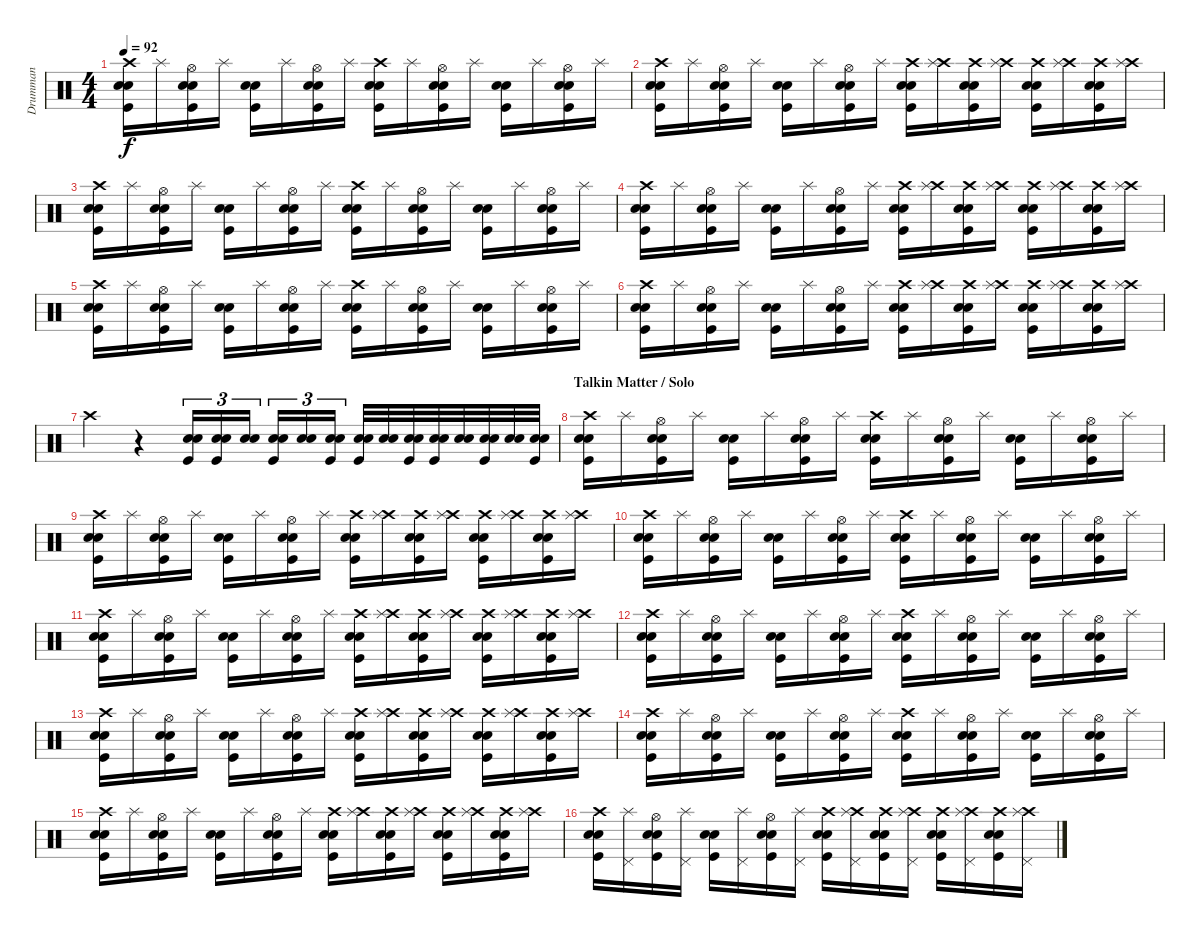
\track ("Drumman" "Drumman") {instrument percussion}
\staff {score}
\articulation defaults
\ts (4 4)
\tempo 92
\clef neutral
\ks c
("Crash high (hit)" "Snare (hit) 2" "Electric Snare (hit)" "Kick (hit)").16{dy f} "Splash (hit)".16 ("Hi-Hat (open)" "Snare (hit) 2" "Electric Snare (hit)" "Kick (hit)").16 "Splash (hit)".16 ("Snare (hit) 2" "Electric Snare (hit)" "Kick (hit)").16 "Splash (hit)".16 ("Hi-Hat (open)" "Snare (hit) 2" "Electric Snare (hit)" "Kick (hit)").16 "Splash (hit)".16 ("Crash high (hit)" "Snare (hit) 2" "Electric Snare (hit)" "Kick (hit)").16 "Splash (hit)".16 ("Hi-Hat (open)" "Snare (hit) 2" "Electric Snare (hit)" "Kick (hit)").16 "Splash (hit)".16 ("Snare (hit) 2" "Electric Snare (hit)" "Kick (hit)").16 "Splash (hit)".16 ("Hi-Hat (open)" "Snare (hit) 2" "Electric Snare (hit)" "Kick (hit)").16 "Splash (hit)".16 |
("Crash high (hit)" "Snare (hit) 2" "Electric Snare (hit)" "Kick (hit)").16 "Splash (hit)".16 ("Hi-Hat (open)" "Snare (hit) 2" "Electric Snare (hit)" "Kick (hit)").16 "Splash (hit)".16 ("Snare (hit) 2" "Electric Snare (hit)" "Kick (hit)").16 "Splash (hit)".16 ("Hi-Hat (open)" "Snare (hit) 2" "Electric Snare (hit)" "Kick (hit)").16 "Splash (hit)".16 ("Crash high (hit)" "Snare (hit) 2" "Electric Snare (hit)" "Kick (hit)").16 ("Crash high (hit)" "Splash (hit)").16 ("Crash high (hit)" "Snare (hit) 2" "Electric Snare (hit)" "Kick (hit)").16 ("Crash high (hit)" "Splash (hit)").16 ("Crash high (hit)" "Snare (hit) 2" "Electric Snare (hit)" "Kick (hit)").16 ("Crash high (hit)" "Splash (hit)").16 ("Crash high (hit)" "Snare (hit) 2" "Electric Snare (hit)" "Kick (hit)").16 ("Crash high (hit)" "Splash (hit)").16 |
("Crash high (hit)" "Snare (hit) 2" "Electric Snare (hit)" "Kick (hit)").16 "Splash (hit)".16 ("Hi-Hat (open)" "Snare (hit) 2" "Electric Snare (hit)" "Kick (hit)").16 "Splash (hit)".16 ("Snare (hit) 2" "Electric Snare (hit)" "Kick (hit)").16 "Splash (hit)".16 ("Hi-Hat (open)" "Snare (hit) 2" "Electric Snare (hit)" "Kick (hit)").16 "Splash (hit)".16 ("Crash high (hit)" "Snare (hit) 2" "Electric Snare (hit)" "Kick (hit)").16 "Splash (hit)".16 ("Hi-Hat (open)" "Snare (hit) 2" "Electric Snare (hit)" "Kick (hit)").16 "Splash (hit)".16 ("Snare (hit) 2" "Electric Snare (hit)" "Kick (hit)").16 "Splash (hit)".16 ("Hi-Hat (open)" "Snare (hit) 2" "Electric Snare (hit)" "Kick (hit)").16 "Splash (hit)".16 |
("Crash high (hit)" "Snare (hit) 2" "Electric Snare (hit)" "Kick (hit)").16 "Splash (hit)".16 ("Hi-Hat (open)" "Snare (hit) 2" "Electric Snare (hit)" "Kick (hit)").16 "Splash (hit)".16 ("Snare (hit) 2" "Electric Snare (hit)" "Kick (hit)").16 "Splash (hit)".16 ("Hi-Hat (open)" "Snare (hit) 2" "Electric Snare (hit)" "Kick (hit)").16 "Splash (hit)".16 ("Crash high (hit)" "Snare (hit) 2" "Electric Snare (hit)" "Kick (hit)").16 ("Crash high (hit)" "Splash (hit)").16 ("Crash high (hit)" "Snare (hit) 2" "Electric Snare (hit)" "Kick (hit)").16 ("Crash high (hit)" "Splash (hit)").16 ("Crash high (hit)" "Snare (hit) 2" "Electric Snare (hit)" "Kick (hit)").16 ("Crash high (hit)" "Splash (hit)").16 ("Crash high (hit)" "Snare (hit) 2" "Electric Snare (hit)" "Kick (hit)").16 ("Crash high (hit)" "Splash (hit)").16 |
("Crash high (hit)" "Snare (hit) 2" "Electric Snare (hit)" "Kick (hit)").16 "Splash (hit)".16 ("Hi-Hat (open)" "Snare (hit) 2" "Electric Snare (hit)" "Kick (hit)").16 "Splash (hit)".16 ("Snare (hit) 2" "Electric Snare (hit)" "Kick (hit)").16 "Splash (hit)".16 ("Hi-Hat (open)" "Snare (hit) 2" "Electric Snare (hit)" "Kick (hit)").16 "Splash (hit)".16 ("Crash high (hit)" "Snare (hit) 2" "Electric Snare (hit)" "Kick (hit)").16 "Splash (hit)".16 ("Hi-Hat (open)" "Snare (hit) 2" "Electric Snare (hit)" "Kick (hit)").16 "Splash (hit)".16 ("Snare (hit) 2" "Electric Snare (hit)" "Kick (hit)").16 "Splash (hit)".16 ("Hi-Hat (open)" "Snare (hit) 2" "Electric Snare (hit)" "Kick (hit)").16 "Splash (hit)".16 |
("Crash high (hit)" "Snare (hit) 2" "Electric Snare (hit)" "Kick (hit)").16 "Splash (hit)".16 ("Hi-Hat (open)" "Snare (hit) 2" "Electric Snare (hit)" "Kick (hit)").16 "Splash (hit)".16 ("Snare (hit) 2" "Electric Snare (hit)" "Kick (hit)").16 "Splash (hit)".16 ("Hi-Hat (open)" "Snare (hit) 2" "Electric Snare (hit)" "Kick (hit)").16 "Splash (hit)".16 ("Crash high (hit)" "Snare (hit) 2" "Electric Snare (hit)" "Kick (hit)").16 ("Crash high (hit)" "Splash (hit)").16 ("Crash high (hit)" "Snare (hit) 2" "Electric Snare (hit)" "Kick (hit)").16 ("Crash high (hit)" "Splash (hit)").16 ("Crash high (hit)" "Snare (hit) 2" "Electric Snare (hit)" "Kick (hit)").16 ("Crash high (hit)" "Splash (hit)").16 ("Crash high (hit)" "Snare (hit) 2" "Electric Snare (hit)" "Kick (hit)").16 ("Crash high (hit)" "Splash (hit)").16 |
"Crash high (hit)".4 r.4 ("Snare (hit) 2" "Electric Snare (hit)" "Kick (hit)").16{tu (3 2)} ("Snare (hit) 2" "Electric Snare (hit)" "Kick (hit)").16{tu (3 2)} ("Snare (hit) 2" "Electric Snare (hit)").16{tu (3 2)} ("Snare (hit) 2" "Electric Snare (hit)" "Kick (hit)").16{tu (3 2)} ("Snare (hit) 2" "Electric Snare (hit)").16{tu (3 2)} ("Snare (hit) 2" "Electric Snare (hit)" "Kick (hit)").16{tu (3 2)} ("Snare (hit) 2" "Electric Snare (hit)" "Kick (hit)").32 ("Snare (hit) 2" "Electric Snare (hit)").32 ("Snare (hit) 2" "Electric Snare (hit)" "Kick (hit)").32 ("Snare (hit) 2" "Electric Snare (hit)" "Kick (hit)").32 ("Snare (hit) 2" "Electric Snare (hit)").32 ("Snare (hit) 2" "Electric Snare (hit)" "Kick (hit)").32 ("Snare (hit) 2" "Electric Snare (hit)").32 ("Snare (hit) 2" "Electric Snare (hit)" "Kick (hit)").32 |
\section ("" "Talkin Matter / Solo")
("Crash high (hit)" "Snare (hit) 2" "Electric Snare (hit)" "Kick (hit)").16 "Splash (hit)".16 ("Hi-Hat (open)" "Snare (hit) 2" "Electric Snare (hit)" "Kick (hit)").16 "Splash (hit)".16 ("Snare (hit) 2" "Electric Snare (hit)" "Kick (hit)").16 "Splash (hit)".16 ("Hi-Hat (open)" "Snare (hit) 2" "Electric Snare (hit)" "Kick (hit)").16 "Splash (hit)".16 ("Crash high (hit)" "Snare (hit) 2" "Electric Snare (hit)" "Kick (hit)").16 "Splash (hit)".16 ("Hi-Hat (open)" "Snare (hit) 2" "Electric Snare (hit)" "Kick (hit)").16 "Splash (hit)".16 ("Snare (hit) 2" "Electric Snare (hit)" "Kick (hit)").16 "Splash (hit)".16 ("Hi-Hat (open)" "Snare (hit) 2" "Electric Snare (hit)" "Kick (hit)").16 "Splash (hit)".16 |
("Crash high (hit)" "Snare (hit) 2" "Electric Snare (hit)" "Kick (hit)").16 "Splash (hit)".16 ("Hi-Hat (open)" "Snare (hit) 2" "Electric Snare (hit)" "Kick (hit)").16 "Splash (hit)".16 ("Snare (hit) 2" "Electric Snare (hit)" "Kick (hit)").16 "Splash (hit)".16 ("Hi-Hat (open)" "Snare (hit) 2" "Electric Snare (hit)" "Kick (hit)").16 "Splash (hit)".16 ("Crash high (hit)" "Snare (hit) 2" "Electric Snare (hit)" "Kick (hit)").16 ("Crash high (hit)" "Splash (hit)").16 ("Crash high (hit)" "Snare (hit) 2" "Electric Snare (hit)" "Kick (hit)").16 ("Crash high (hit)" "Splash (hit)").16 ("Crash high (hit)" "Snare (hit) 2" "Electric Snare (hit)" "Kick (hit)").16 ("Crash high (hit)" "Splash (hit)").16 ("Crash high (hit)" "Snare (hit) 2" "Electric Snare (hit)" "Kick (hit)").16 ("Crash high (hit)" "Splash (hit)").16 |
("Crash high (hit)" "Snare (hit) 2" "Electric Snare (hit)" "Kick (hit)").16 "Splash (hit)".16 ("Hi-Hat (open)" "Snare (hit) 2" "Electric Snare (hit)" "Kick (hit)").16 "Splash (hit)".16 ("Snare (hit) 2" "Electric Snare (hit)" "Kick (hit)").16 "Splash (hit)".16 ("Hi-Hat (open)" "Snare (hit) 2" "Electric Snare (hit)" "Kick (hit)").16 "Splash (hit)".16 ("Crash high (hit)" "Snare (hit) 2" "Electric Snare (hit)" "Kick (hit)").16 "Splash (hit)".16 ("Hi-Hat (open)" "Snare (hit) 2" "Electric Snare (hit)" "Kick (hit)").16 "Splash (hit)".16 ("Snare (hit) 2" "Electric Snare (hit)" "Kick (hit)").16 "Splash (hit)".16 ("Hi-Hat (open)" "Snare (hit) 2" "Electric Snare (hit)" "Kick (hit)").16 "Splash (hit)".16 |
("Crash high (hit)" "Snare (hit) 2" "Electric Snare (hit)" "Kick (hit)").16 "Splash (hit)".16 ("Hi-Hat (open)" "Snare (hit) 2" "Electric Snare (hit)" "Kick (hit)").16 "Splash (hit)".16 ("Snare (hit) 2" "Electric Snare (hit)" "Kick (hit)").16 "Splash (hit)".16 ("Hi-Hat (open)" "Snare (hit) 2" "Electric Snare (hit)" "Kick (hit)").16 "Splash (hit)".16 ("Crash high (hit)" "Snare (hit) 2" "Electric Snare (hit)" "Kick (hit)").16 ("Crash high (hit)" "Splash (hit)").16 ("Crash high (hit)" "Snare (hit) 2" "Electric Snare (hit)" "Kick (hit)").16 ("Crash high (hit)" "Splash (hit)").16 ("Crash high (hit)" "Snare (hit) 2" "Electric Snare (hit)" "Kick (hit)").16 ("Crash high (hit)" "Splash (hit)").16 ("Crash high (hit)" "Snare (hit) 2" "Electric Snare (hit)" "Kick (hit)").16 ("Crash high (hit)" "Splash (hit)").16 |
("Crash high (hit)" "Snare (hit) 2" "Electric Snare (hit)" "Kick (hit)").16 "Splash (hit)".16 ("Hi-Hat (open)" "Snare (hit) 2" "Electric Snare (hit)" "Kick (hit)").16 "Splash (hit)".16 ("Snare (hit) 2" "Electric Snare (hit)" "Kick (hit)").16 "Splash (hit)".16 ("Hi-Hat (open)" "Snare (hit) 2" "Electric Snare (hit)" "Kick (hit)").16 "Splash (hit)".16 ("Crash high (hit)" "Snare (hit) 2" "Electric Snare (hit)" "Kick (hit)").16 "Splash (hit)".16 ("Hi-Hat (open)" "Snare (hit) 2" "Electric Snare (hit)" "Kick (hit)").16 "Splash (hit)".16 ("Snare (hit) 2" "Electric Snare (hit)" "Kick (hit)").16 "Splash (hit)".16 ("Hi-Hat (open)" "Snare (hit) 2" "Electric Snare (hit)" "Kick (hit)").16 "Splash (hit)".16 |
("Crash high (hit)" "Snare (hit) 2" "Electric Snare (hit)" "Kick (hit)").16 "Splash (hit)".16 ("Hi-Hat (open)" "Snare (hit) 2" "Electric Snare (hit)" "Kick (hit)").16 "Splash (hit)".16 ("Snare (hit) 2" "Electric Snare (hit)" "Kick (hit)").16 "Splash (hit)".16 ("Hi-Hat (open)" "Snare (hit) 2" "Electric Snare (hit)" "Kick (hit)").16 "Splash (hit)".16 ("Crash high (hit)" "Snare (hit) 2" "Electric Snare (hit)" "Kick (hit)").16 ("Crash high (hit)" "Splash (hit)").16 ("Crash high (hit)" "Snare (hit) 2" "Electric Snare (hit)" "Kick (hit)").16 ("Crash high (hit)" "Splash (hit)").16 ("Crash high (hit)" "Snare (hit) 2" "Electric Snare (hit)" "Kick (hit)").16 ("Crash high (hit)" "Splash (hit)").16 ("Crash high (hit)" "Snare (hit) 2" "Electric Snare (hit)" "Kick (hit)").16 ("Crash high (hit)" "Splash (hit)").16 |
("Crash high (hit)" "Snare (hit) 2" "Electric Snare (hit)" "Kick (hit)").16 "Splash (hit)".16 ("Hi-Hat (open)" "Snare (hit) 2" "Electric Snare (hit)" "Kick (hit)").16 "Splash (hit)".16 ("Snare (hit) 2" "Electric Snare (hit)" "Kick (hit)").16 "Splash (hit)".16 ("Hi-Hat (open)" "Snare (hit) 2" "Electric Snare (hit)" "Kick (hit)").16 "Splash (hit)".16 ("Crash high (hit)" "Snare (hit) 2" "Electric Snare (hit)" "Kick (hit)").16 "Splash (hit)".16 ("Hi-Hat (open)" "Snare (hit) 2" "Electric Snare (hit)" "Kick (hit)").16 "Splash (hit)".16 ("Snare (hit) 2" "Electric Snare (hit)" "Kick (hit)").16 "Splash (hit)".16 ("Hi-Hat (open)" "Snare (hit) 2" "Electric Snare (hit)" "Kick (hit)").16 "Splash (hit)".16 |
("Crash high (hit)" "Snare (hit) 2" "Electric Snare (hit)" "Kick (hit)").16 "Splash (hit)".16 ("Hi-Hat (open)" "Snare (hit) 2" "Electric Snare (hit)" "Kick (hit)").16 "Splash (hit)".16 ("Snare (hit) 2" "Electric Snare (hit)" "Kick (hit)").16 "Splash (hit)".16 ("Hi-Hat (open)" "Snare (hit) 2" "Electric Snare (hit)" "Kick (hit)").16 "Splash (hit)".16 ("Crash high (hit)" "Snare (hit) 2" "Electric Snare (hit)" "Kick (hit)").16 ("Crash high (hit)" "Splash (hit)").16 ("Crash high (hit)" "Snare (hit) 2" "Electric Snare (hit)" "Kick (hit)").16 ("Crash high (hit)" "Splash (hit)").16 ("Crash high (hit)" "Snare (hit) 2" "Electric Snare (hit)" "Kick (hit)").16 ("Crash high (hit)" "Splash (hit)").16 ("Crash high (hit)" "Snare (hit) 2" "Electric Snare (hit)" "Kick (hit)").16 ("Crash high (hit)" "Splash (hit)").16 |
("Crash high (hit)" "Snare (hit) 2" "Electric Snare (hit)" "Kick (hit)").16 ("Pedal Hi-Hat (hit)" "Splash (hit)").16 ("Hi-Hat (open)" "Snare (hit) 2" "Electric Snare (hit)" "Kick (hit)").16 ("Pedal Hi-Hat (hit)" "Splash (hit)").16 ("Snare (hit) 2" "Electric Snare (hit)" "Kick (hit)").16 ("Pedal Hi-Hat (hit)" "Splash (hit)").16 ("Hi-Hat (open)" "Snare (hit) 2" "Electric Snare (hit)" "Kick (hit)").16 ("Pedal Hi-Hat (hit)" "Splash (hit)").16 ("Crash high (hit)" "Snare (hit) 2" "Electric Snare (hit)" "Kick (hit)").16 ("Crash high (hit)" "Pedal Hi-Hat (hit)" "Splash (hit)").16 ("Crash high (hit)" "Snare (hit) 2" "Electric Snare (hit)" "Kick (hit)").16 ("Crash high (hit)" "Pedal Hi-Hat (hit)" "Splash (hit)").16 ("Crash high (hit)" "Snare (hit) 2" "Electric Snare (hit)" "Kick (hit)").16 ("Crash high (hit)" "Pedal Hi-Hat (hit)" "Splash (hit)").16 ("Crash high (hit)" "Snare (hit) 2" "Electric Snare (hit)" "Kick (hit)").16 ("Crash high (hit)" "Pedal Hi-Hat (hit)" "Splash (hit)").16
